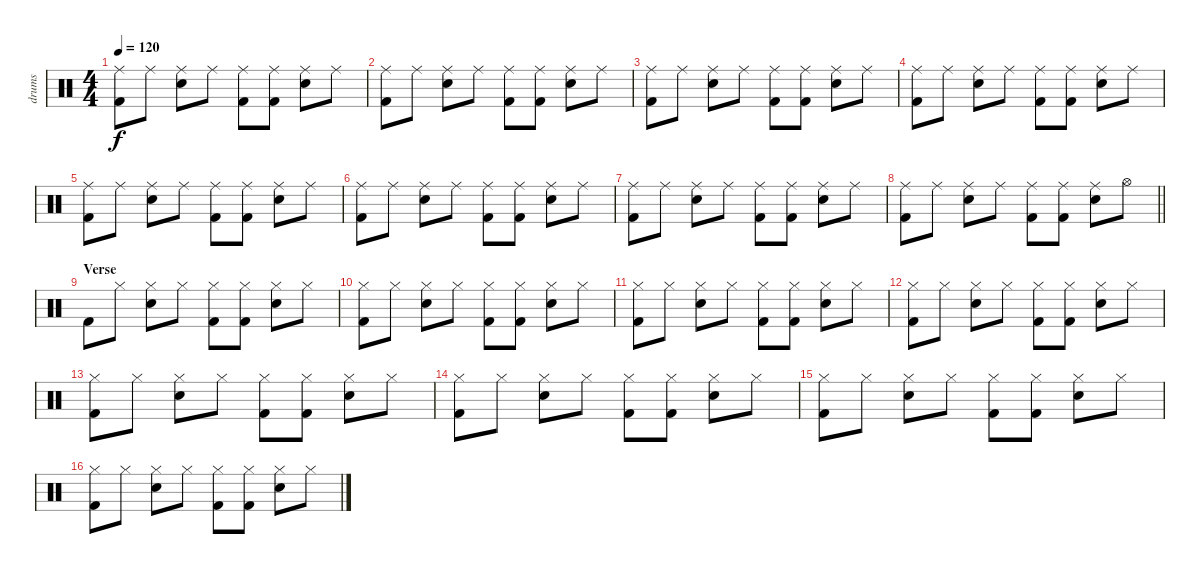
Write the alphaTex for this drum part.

\track ("drums" "drums") {instrument percussion}
\staff {score}
\articulation defaults
\ts (4 4)
\tempo 120
\clef neutral
\ks c
("Ride (middle)" "Kick (hit) 2").8{dy f} "Ride (middle)".8 ("Ride (middle)" "Snare (hit) 2").8 "Ride (middle)".8 ("Ride (middle)" "Kick (hit) 2").8 ("Ride (middle)" "Kick (hit) 2").8 ("Ride (middle)" "Snare (hit) 2").8 "Ride (middle)".8 |
("Ride (middle)" "Kick (hit) 2").8 "Ride (middle)".8 ("Ride (middle)" "Snare (hit) 2").8 "Ride (middle)".8 ("Ride (middle)" "Kick (hit) 2").8 ("Ride (middle)" "Kick (hit) 2").8 ("Ride (middle)" "Snare (hit) 2").8 "Ride (middle)".8 |
("Ride (middle)" "Kick (hit) 2").8 "Ride (middle)".8 ("Ride (middle)" "Snare (hit) 2").8 "Ride (middle)".8 ("Ride (middle)" "Kick (hit) 2").8 ("Ride (middle)" "Kick (hit) 2").8 ("Ride (middle)" "Snare (hit) 2").8 "Ride (middle)".8 |
("Ride (middle)" "Kick (hit) 2").8 "Ride (middle)".8 ("Ride (middle)" "Snare (hit) 2").8 "Ride (middle)".8 ("Ride (middle)" "Kick (hit) 2").8 ("Ride (middle)" "Kick (hit) 2").8 ("Ride (middle)" "Snare (hit) 2").8 "Ride (middle)".8 |
("Ride (middle)" "Kick (hit) 2").8 "Ride (middle)".8 ("Ride (middle)" "Snare (hit) 2").8 "Ride (middle)".8 ("Ride (middle)" "Kick (hit) 2").8 ("Ride (middle)" "Kick (hit) 2").8 ("Ride (middle)" "Snare (hit) 2").8 "Ride (middle)".8 |
("Ride (middle)" "Kick (hit) 2").8 "Ride (middle)".8 ("Ride (middle)" "Snare (hit) 2").8 "Ride (middle)".8 ("Ride (middle)" "Kick (hit) 2").8 ("Ride (middle)" "Kick (hit) 2").8 ("Ride (middle)" "Snare (hit) 2").8 "Ride (middle)".8 |
("Ride (middle)" "Kick (hit) 2").8 "Ride (middle)".8 ("Ride (middle)" "Snare (hit) 2").8 "Ride (middle)".8 ("Ride (middle)" "Kick (hit) 2").8 ("Ride (middle)" "Kick (hit) 2").8 ("Ride (middle)" "Snare (hit) 2").8 "Ride (middle)".8 |
\barLineRight lightlight
("Ride (middle)" "Kick (hit) 2").8 "Ride (middle)".8 ("Ride (middle)" "Snare (hit) 2").8 "Ride (middle)".8 ("Ride (middle)" "Kick (hit) 2").8 ("Ride (middle)" "Kick (hit) 2").8 ("Ride (middle)" "Snare (hit) 2").8 "Hi-Hat (open)".8 |
\section ("" "Verse")
"Kick (hit) 2".8 "Hi-Hat (closed)".8 ("Hi-Hat (closed)" "Snare (hit) 2").8 "Hi-Hat (closed)".8 ("Hi-Hat (closed)" "Kick (hit) 2").8 ("Hi-Hat (closed)" "Kick (hit) 2").8 ("Hi-Hat (closed)" "Snare (hit) 2").8 "Hi-Hat (closed)".8 |
("Hi-Hat (closed)" "Kick (hit) 2").8 "Hi-Hat (closed)".8 ("Hi-Hat (closed)" "Snare (hit) 2").8 "Hi-Hat (closed)".8 ("Hi-Hat (closed)" "Kick (hit) 2").8 ("Hi-Hat (closed)" "Kick (hit) 2").8 ("Hi-Hat (closed)" "Snare (hit) 2").8 "Hi-Hat (closed)".8 |
("Hi-Hat (closed)" "Kick (hit) 2").8 "Hi-Hat (closed)".8 ("Hi-Hat (closed)" "Snare (hit) 2").8 "Hi-Hat (closed)".8 ("Hi-Hat (closed)" "Kick (hit) 2").8 ("Hi-Hat (closed)" "Kick (hit) 2").8 ("Hi-Hat (closed)" "Snare (hit) 2").8 "Hi-Hat (closed)".8 |
("Hi-Hat (closed)" "Kick (hit) 2").8 "Hi-Hat (closed)".8 ("Hi-Hat (closed)" "Snare (hit) 2").8 "Hi-Hat (closed)".8 ("Hi-Hat (closed)" "Kick (hit) 2").8 ("Hi-Hat (closed)" "Kick (hit) 2").8 ("Hi-Hat (closed)" "Snare (hit) 2").8 "Hi-Hat (closed)".8 |
("Hi-Hat (closed)" "Kick (hit) 2").8 "Hi-Hat (closed)".8 ("Hi-Hat (closed)" "Snare (hit) 2").8 "Hi-Hat (closed)".8 ("Hi-Hat (closed)" "Kick (hit) 2").8 ("Hi-Hat (closed)" "Kick (hit) 2").8 ("Hi-Hat (closed)" "Snare (hit) 2").8 "Hi-Hat (closed)".8 |
("Hi-Hat (closed)" "Kick (hit) 2").8 "Hi-Hat (closed)".8 ("Hi-Hat (closed)" "Snare (hit) 2").8 "Hi-Hat (closed)".8 ("Hi-Hat (closed)" "Kick (hit) 2").8 ("Hi-Hat (closed)" "Kick (hit) 2").8 ("Hi-Hat (closed)" "Snare (hit) 2").8 "Hi-Hat (closed)".8 |
("Hi-Hat (closed)" "Kick (hit) 2").8 "Hi-Hat (closed)".8 ("Hi-Hat (closed)" "Snare (hit) 2").8 "Hi-Hat (closed)".8 ("Hi-Hat (closed)" "Kick (hit) 2").8 ("Hi-Hat (closed)" "Kick (hit) 2").8 ("Hi-Hat (closed)" "Snare (hit) 2").8 "Hi-Hat (closed)".8 |
("Hi-Hat (closed)" "Kick (hit) 2").8 "Hi-Hat (closed)".8 ("Hi-Hat (closed)" "Snare (hit) 2").8 "Hi-Hat (closed)".8 ("Hi-Hat (closed)" "Kick (hit) 2").8 ("Hi-Hat (closed)" "Kick (hit) 2").8 ("Hi-Hat (closed)" "Snare (hit) 2").8 "Hi-Hat (closed)".8
